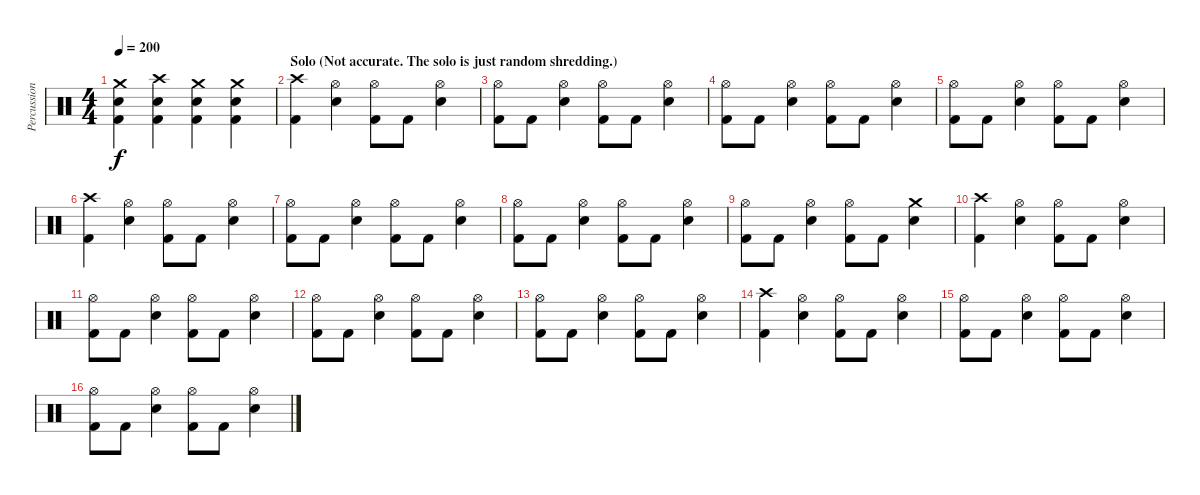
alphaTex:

\track ("Percussion" "Percussion") {instrument percussion}
\staff {score}
\articulation defaults
\ts (4 4)
\tempo 200
\clef neutral
\ks c
("Crash medium (hit)" "Snare (hit) 2" "Kick (hit) 2").4{dy f} ("Crash high (hit)" "Snare (hit) 2" "Kick (hit) 2").4 ("Crash medium (hit)" "Snare (hit) 2" "Kick (hit) 2").4 ("Crash medium (hit)" "Snare (hit) 2" "Kick (hit) 2").4 |
\section ("" "Solo (Not accurate. The solo is just random shredding.)")
("Crash high (hit)" "Kick (hit) 2").4 ("Hi-Hat (open)" "Snare (hit) 2").4 ("Hi-Hat (open)" "Kick (hit) 2").8 "Kick (hit) 2".8 ("Hi-Hat (open)" "Snare (hit) 2").4 |
("Hi-Hat (open)" "Kick (hit) 2").8 "Kick (hit) 2".8 ("Hi-Hat (open)" "Snare (hit) 2").4 ("Hi-Hat (open)" "Kick (hit) 2").8 "Kick (hit) 2".8 ("Hi-Hat (open)" "Snare (hit) 2").4 |
("Hi-Hat (open)" "Kick (hit) 2").8 "Kick (hit) 2".8 ("Hi-Hat (open)" "Snare (hit) 2").4 ("Hi-Hat (open)" "Kick (hit) 2").8 "Kick (hit) 2".8 ("Hi-Hat (open)" "Snare (hit) 2").4 |
("Hi-Hat (open)" "Kick (hit) 2").8 "Kick (hit) 2".8 ("Hi-Hat (open)" "Snare (hit) 2").4 ("Hi-Hat (open)" "Kick (hit) 2").8 "Kick (hit) 2".8 ("Hi-Hat (open)" "Snare (hit) 2").4 |
("Crash high (hit)" "Kick (hit) 2").4 ("Hi-Hat (open)" "Snare (hit) 2").4 ("Hi-Hat (open)" "Kick (hit) 2").8 "Kick (hit) 2".8 ("Hi-Hat (open)" "Snare (hit) 2").4 |
("Hi-Hat (open)" "Kick (hit) 2").8 "Kick (hit) 2".8 ("Hi-Hat (open)" "Snare (hit) 2").4 ("Hi-Hat (open)" "Kick (hit) 2").8 "Kick (hit) 2".8 ("Hi-Hat (open)" "Snare (hit) 2").4 |
("Hi-Hat (open)" "Kick (hit) 2").8 "Kick (hit) 2".8 ("Hi-Hat (open)" "Snare (hit) 2").4 ("Hi-Hat (open)" "Kick (hit) 2").8 "Kick (hit) 2".8 ("Hi-Hat (open)" "Snare (hit) 2").4 |
("Hi-Hat (open)" "Kick (hit) 2").8 "Kick (hit) 2".8 ("Hi-Hat (open)" "Snare (hit) 2").4 ("Hi-Hat (open)" "Kick (hit) 2").8 "Kick (hit) 2".8 ("Crash medium (hit)" "Snare (hit) 2").4 |
("Crash high (hit)" "Kick (hit) 2").4 ("Hi-Hat (open)" "Snare (hit) 2").4 ("Hi-Hat (open)" "Kick (hit) 2").8 "Kick (hit) 2".8 ("Hi-Hat (open)" "Snare (hit) 2").4 |
("Hi-Hat (open)" "Kick (hit) 2").8 "Kick (hit) 2".8 ("Hi-Hat (open)" "Snare (hit) 2").4 ("Hi-Hat (open)" "Kick (hit) 2").8 "Kick (hit) 2".8 ("Hi-Hat (open)" "Snare (hit) 2").4 |
("Hi-Hat (open)" "Kick (hit) 2").8 "Kick (hit) 2".8 ("Hi-Hat (open)" "Snare (hit) 2").4 ("Hi-Hat (open)" "Kick (hit) 2").8 "Kick (hit) 2".8 ("Hi-Hat (open)" "Snare (hit) 2").4 |
("Hi-Hat (open)" "Kick (hit) 2").8 "Kick (hit) 2".8 ("Hi-Hat (open)" "Snare (hit) 2").4 ("Hi-Hat (open)" "Kick (hit) 2").8 "Kick (hit) 2".8 ("Hi-Hat (open)" "Snare (hit) 2").4 |
("Crash high (hit)" "Kick (hit) 2").4 ("Hi-Hat (open)" "Snare (hit) 2").4 ("Hi-Hat (open)" "Kick (hit) 2").8 "Kick (hit) 2".8 ("Hi-Hat (open)" "Snare (hit) 2").4 |
("Hi-Hat (open)" "Kick (hit) 2").8 "Kick (hit) 2".8 ("Hi-Hat (open)" "Snare (hit) 2").4 ("Hi-Hat (open)" "Kick (hit) 2").8 "Kick (hit) 2".8 ("Hi-Hat (open)" "Snare (hit) 2").4 |
("Hi-Hat (open)" "Kick (hit) 2").8 "Kick (hit) 2".8 ("Hi-Hat (open)" "Snare (hit) 2").4 ("Hi-Hat (open)" "Kick (hit) 2").8 "Kick (hit) 2".8 ("Hi-Hat (open)" "Snare (hit) 2").4
